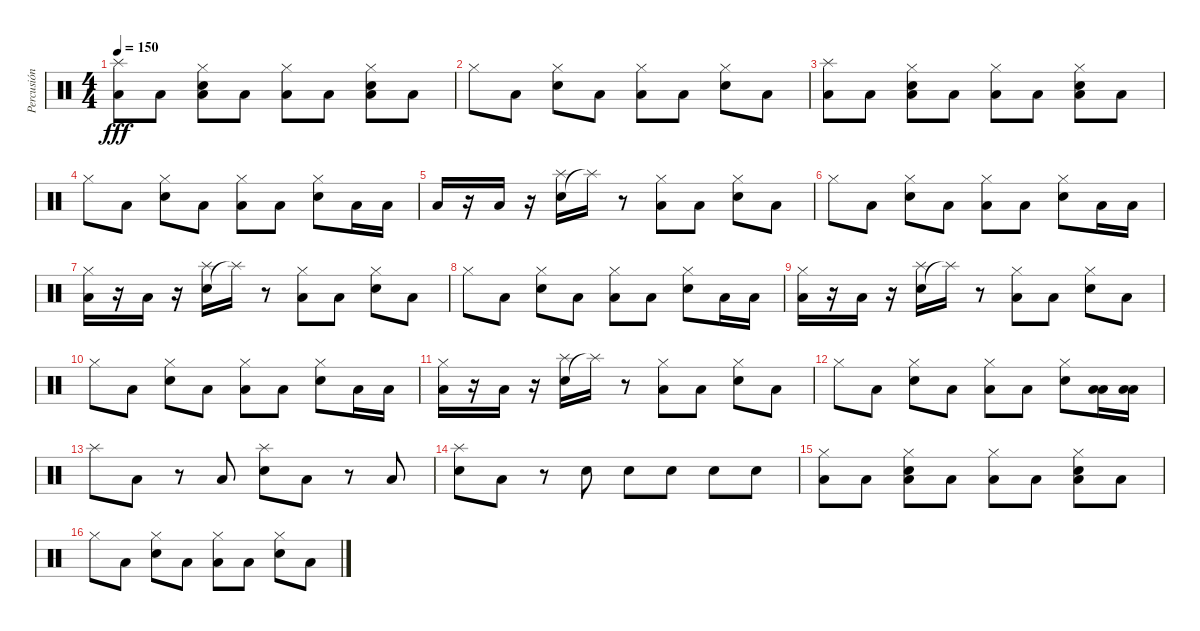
\track ("Percusión" "Percusión") {instrument percussion}
\staff {score}
\articulation defaults
\ts (4 4)
\tempo 150
\clef neutral
\ks c
("Splash (hit)" "Low Tom (hit)").8{dy fff} "Low Tom (hit)".8 ("Low Tom (hit)" "Hi-Hat (closed)" "Snare (hit) 2").8 "Low Tom (hit)".8 ("Hi-Hat (closed)" "Low Tom (hit)").8 "Low Tom (hit)".8 ("Low Tom (hit)" "Hi-Hat (closed)" "Snare (hit) 2").8 "Low Tom (hit)".8 |
"Hi-Hat (closed)".8 "Low Tom (hit)".8 ("Hi-Hat (closed)" "Snare (hit) 2").8 "Low Tom (hit)".8 ("Hi-Hat (closed)" "Low Tom (hit)").8 "Low Tom (hit)".8 ("Hi-Hat (closed)" "Snare (hit) 2").8 "Low Tom (hit)".8 |
("Splash (hit)" "Low Tom (hit)").8 "Low Tom (hit)".8 ("Low Tom (hit)" "Hi-Hat (closed)" "Snare (hit) 2").8 "Low Tom (hit)".8 ("Hi-Hat (closed)" "Low Tom (hit)").8 "Low Tom (hit)".8 ("Low Tom (hit)" "Hi-Hat (closed)" "Snare (hit) 2").8 "Low Tom (hit)".8 |
"Hi-Hat (closed)".8 "Low Tom (hit)".8 ("Hi-Hat (closed)" "Snare (hit) 2").8 "Low Tom (hit)".8 ("Hi-Hat (closed)" "Low Tom (hit)").8 "Low Tom (hit)".8 ("Hi-Hat (closed)" "Snare (hit) 2").8 "Low Tom (hit)".16 "Low Floor Tom (hit)".16 |
"Low Tom (hit)".16 r.16 "Low Tom (hit)".16 r.16 ("Snare (hit) 2" "Splash (hit)").16 "Splash (hit)"{t}.16 r.8 ("Hi-Hat (closed)" "Low Tom (hit)").8 "Low Tom (hit)".8 ("Hi-Hat (closed)" "Snare (hit) 2").8 "Low Tom (hit)".8 |
"Hi-Hat (closed)".8 "Low Tom (hit)".8 ("Hi-Hat (closed)" "Snare (hit) 2").8 "Low Tom (hit)".8 ("Hi-Hat (closed)" "Low Tom (hit)").8 "Low Tom (hit)".8 ("Hi-Hat (closed)" "Snare (hit) 2").8 "Low Tom (hit)".16 "Low Floor Tom (hit)".16 |
("Hi-Hat (closed)" "Low Tom (hit)").16 r.16 "Low Tom (hit)".16 r.16 ("Snare (hit) 2" "Splash (hit)").16 "Splash (hit)"{t}.16 r.8 ("Hi-Hat (closed)" "Low Tom (hit)").8 "Low Tom (hit)".8 ("Hi-Hat (closed)" "Snare (hit) 2").8 "Low Tom (hit)".8 |
"Hi-Hat (closed)".8 "Low Tom (hit)".8 ("Hi-Hat (closed)" "Snare (hit) 2").8 "Low Tom (hit)".8 ("Hi-Hat (closed)" "Low Tom (hit)").8 "Low Tom (hit)".8 ("Hi-Hat (closed)" "Snare (hit) 2").8 "Low Tom (hit)".16 "Low Floor Tom (hit)".16 |
("Hi-Hat (closed)" "Low Tom (hit)").16 r.16 "Low Tom (hit)".16 r.16 ("Snare (hit) 2" "Splash (hit)").16 "Splash (hit)"{t}.16 r.8 ("Hi-Hat (closed)" "Low Tom (hit)").8 "Low Tom (hit)".8 ("Hi-Hat (closed)" "Snare (hit) 2").8 "Low Tom (hit)".8 |
"Hi-Hat (closed)".8 "Low Tom (hit)".8 ("Hi-Hat (closed)" "Snare (hit) 2").8 "Low Tom (hit)".8 ("Hi-Hat (closed)" "Low Tom (hit)").8 "Low Tom (hit)".8 ("Hi-Hat (closed)" "Snare (hit) 2").8 "Low Tom (hit)".16 "Low Floor Tom (hit)".16 |
("Hi-Hat (closed)" "Low Tom (hit)").16 r.16 "Low Tom (hit)".16 r.16 ("Snare (hit) 2" "Splash (hit)").16 "Splash (hit)"{t}.16 r.8 ("Hi-Hat (closed)" "Low Tom (hit)").8 "Low Tom (hit)".8 ("Hi-Hat (closed)" "Snare (hit) 2").8 "Low Tom (hit)".8 |
"Hi-Hat (closed)".8 "Low Tom (hit)".8 ("Hi-Hat (closed)" "Snare (hit) 2").8 "Low Tom (hit)".8 ("Hi-Hat (closed)" "Low Tom (hit)").8 "Low Tom (hit)".8 ("Hi-Hat (closed)" "Snare (hit) 2").8 ("Low Tom (hit)" "Low Tom (hit)").16 ("Low Floor Tom (hit)" "Low Floor Tom (hit)").16 |
"Splash (hit)".8 "Low Tom (hit)".8 r.8 "Low Tom (hit)".8 ("Splash (hit)" "Snare (hit) 2").8 "Low Tom (hit)".8 r.8 "Low Tom (hit)".8 |
("Splash (hit)" "Snare (hit) 2").8 "Low Tom (hit)".8 r.8 "Snare (hit) 2".8 "Snare (hit) 2".8 "Snare (hit) 2".8 "Snare (hit) 2".8 "Snare (hit) 2".8 |
("Hi-Hat (closed)" "Low Tom (hit)").8 "Low Tom (hit)".8 ("Low Tom (hit)" "Hi-Hat (closed)" "Snare (hit) 2").8 "Low Tom (hit)".8 ("Hi-Hat (closed)" "Low Tom (hit)").8 "Low Tom (hit)".8 ("Low Tom (hit)" "Hi-Hat (closed)" "Snare (hit) 2").8 "Low Tom (hit)".8 |
"Hi-Hat (closed)".8 "Low Tom (hit)".8 ("Hi-Hat (closed)" "Snare (hit) 2").8 "Low Tom (hit)".8 ("Hi-Hat (closed)" "Low Tom (hit)").8 "Low Tom (hit)".8 ("Hi-Hat (closed)" "Snare (hit) 2").8 "Low Tom (hit)".8
